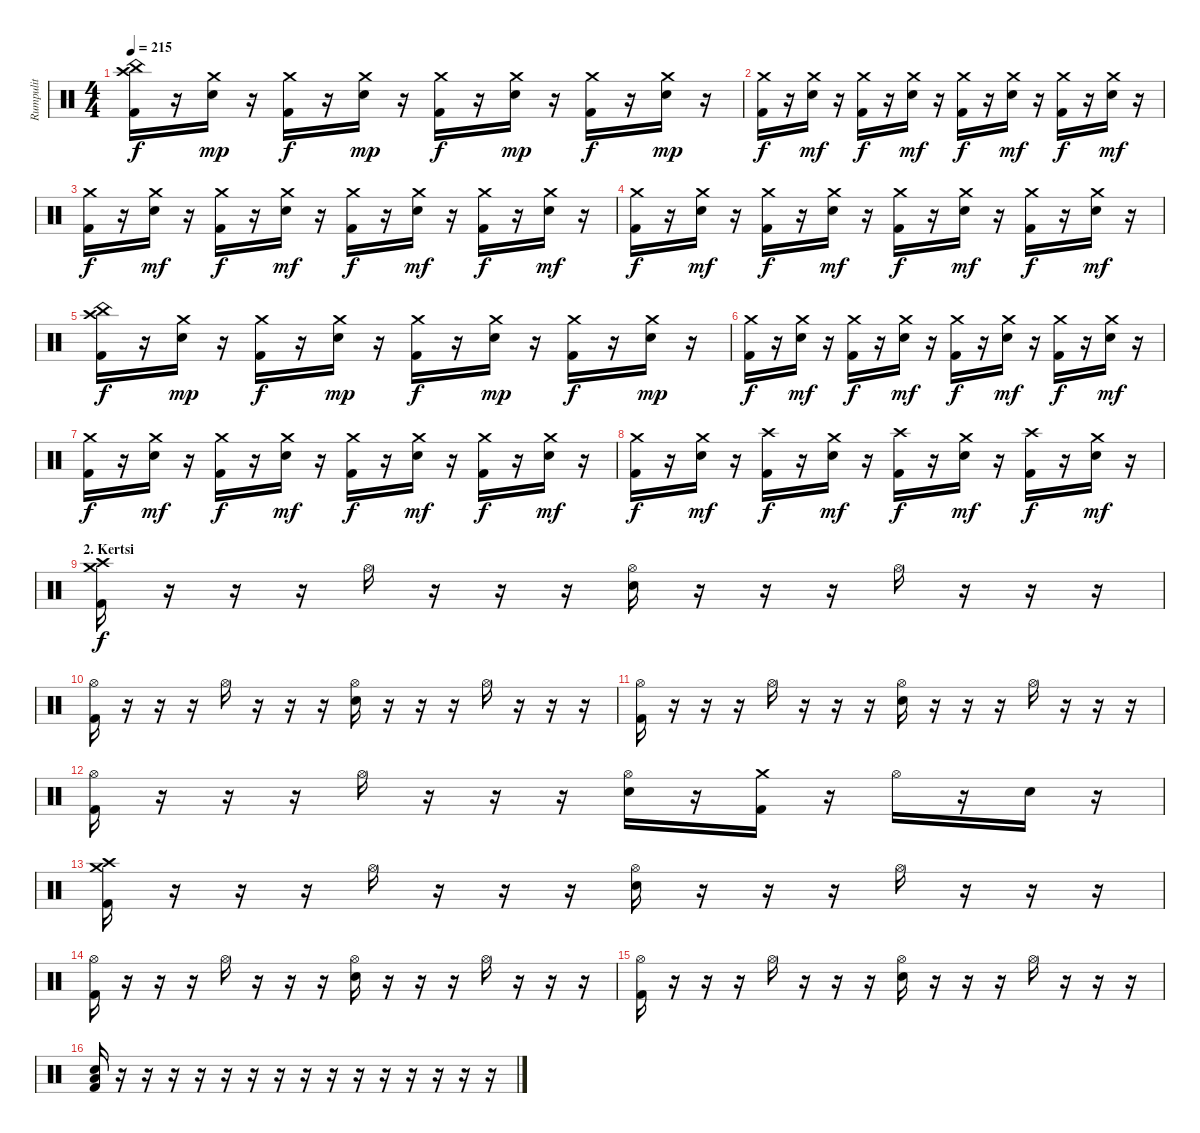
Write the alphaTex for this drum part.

\track ("Rumpulit" "Rumpulit") {instrument percussion}
\staff {score}
\articulation defaults
\ts (4 4)
\tempo 215
\clef neutral
\ks c
("Crash high (hit)" "Kick (hit) 2" "China (hit)").16{dy f} r.16 ("Crash medium (hit)" "Electric Snare (hit)").16{dy mp} r.16 ("Crash medium (hit)" "Kick (hit) 2").16{dy f} r.16 ("Crash medium (hit)" "Electric Snare (hit)").16{dy mp} r.16 ("Crash medium (hit)" "Kick (hit) 2").16{dy f} r.16 ("Crash medium (hit)" "Electric Snare (hit)").16{dy mp} r.16 ("Crash medium (hit)" "Kick (hit) 2").16{dy f} r.16 ("Crash medium (hit)" "Electric Snare (hit)").16{dy mp} r.16 |
("Crash medium (hit)" "Kick (hit) 2").16{dy f} r.16 ("Crash medium (hit)" "Electric Snare (hit)").16{dy mf} r.16 ("Crash medium (hit)" "Kick (hit) 2").16{dy f} r.16 ("Crash medium (hit)" "Electric Snare (hit)").16{dy mf} r.16 ("Crash medium (hit)" "Kick (hit) 2").16{dy f} r.16 ("Crash medium (hit)" "Electric Snare (hit)").16{dy mf} r.16 ("Crash medium (hit)" "Kick (hit) 2").16{dy f} r.16 ("Crash medium (hit)" "Electric Snare (hit)").16{dy mf} r.16 |
("Crash medium (hit)" "Kick (hit) 2").16{dy f} r.16 ("Crash medium (hit)" "Electric Snare (hit)").16{dy mf} r.16 ("Crash medium (hit)" "Kick (hit) 2").16{dy f} r.16 ("Crash medium (hit)" "Electric Snare (hit)").16{dy mf} r.16 ("Crash medium (hit)" "Kick (hit) 2").16{dy f} r.16 ("Crash medium (hit)" "Electric Snare (hit)").16{dy mf} r.16 ("Crash medium (hit)" "Kick (hit) 2").16{dy f} r.16 ("Crash medium (hit)" "Electric Snare (hit)").16{dy mf} r.16 |
("Crash medium (hit)" "Kick (hit) 2").16{dy f} r.16 ("Crash medium (hit)" "Electric Snare (hit)").16{dy mf} r.16 ("Crash medium (hit)" "Kick (hit) 2").16{dy f} r.16 ("Crash medium (hit)" "Electric Snare (hit)").16{dy mf} r.16 ("Crash medium (hit)" "Kick (hit) 2").16{dy f} r.16 ("Crash medium (hit)" "Electric Snare (hit)").16{dy mf} r.16 ("Crash medium (hit)" "Kick (hit) 2").16{dy f} r.16 ("Crash medium (hit)" "Electric Snare (hit)").16{dy mf} r.16 |
("Crash high (hit)" "Kick (hit) 2" "China (hit)").16{dy f} r.16 ("Crash medium (hit)" "Electric Snare (hit)").16{dy mp} r.16 ("Crash medium (hit)" "Kick (hit) 2").16{dy f} r.16 ("Crash medium (hit)" "Electric Snare (hit)").16{dy mp} r.16 ("Crash medium (hit)" "Kick (hit) 2").16{dy f} r.16 ("Crash medium (hit)" "Electric Snare (hit)").16{dy mp} r.16 ("Crash medium (hit)" "Kick (hit) 2").16{dy f} r.16 ("Crash medium (hit)" "Electric Snare (hit)").16{dy mp} r.16 |
("Crash medium (hit)" "Kick (hit) 2").16{dy f} r.16 ("Crash medium (hit)" "Electric Snare (hit)").16{dy mf} r.16 ("Crash medium (hit)" "Kick (hit) 2").16{dy f} r.16 ("Crash medium (hit)" "Electric Snare (hit)").16{dy mf} r.16 ("Crash medium (hit)" "Kick (hit) 2").16{dy f} r.16 ("Crash medium (hit)" "Electric Snare (hit)").16{dy mf} r.16 ("Crash medium (hit)" "Kick (hit) 2").16{dy f} r.16 ("Crash medium (hit)" "Electric Snare (hit)").16{dy mf} r.16 |
("Crash medium (hit)" "Kick (hit) 2").16{dy f} r.16 ("Crash medium (hit)" "Electric Snare (hit)").16{dy mf} r.16 ("Crash medium (hit)" "Kick (hit) 2").16{dy f} r.16 ("Crash medium (hit)" "Electric Snare (hit)").16{dy mf} r.16 ("Crash medium (hit)" "Kick (hit) 2").16{dy f} r.16 ("Crash medium (hit)" "Electric Snare (hit)").16{dy mf} r.16 ("Crash medium (hit)" "Kick (hit) 2").16{dy f} r.16 ("Crash medium (hit)" "Electric Snare (hit)").16{dy mf} r.16 |
("Crash medium (hit)" "Kick (hit) 2").16{dy f} r.16 ("Crash medium (hit)" "Electric Snare (hit)").16{dy mf} r.16 ("Crash high (hit)" "Kick (hit) 2").16{dy f} r.16 ("Crash medium (hit)" "Electric Snare (hit)").16{dy mf} r.16 ("Crash high (hit)" "Kick (hit) 2").16{dy f} r.16 ("Crash medium (hit)" "Electric Snare (hit)").16{dy mf} r.16 ("Crash high (hit)" "Kick (hit) 2").16{dy f} r.16 ("Crash medium (hit)" "Electric Snare (hit)").16{dy mf} r.16 |
\section ("" "2. Kertsi")
("Crash medium (hit)" "Kick (hit) 2" "Crash high (hit)").16{dy f} r.16 r.16 r.16 "Hi-Hat (open)".16 r.16 r.16 r.16 ("Hi-Hat (open)" "Electric Snare (hit)").16 r.16 r.16 r.16 "Hi-Hat (open)".16 r.16 r.16 r.16 |
("Hi-Hat (open)" "Kick (hit) 2").16 r.16 r.16 r.16 "Hi-Hat (open)".16 r.16 r.16 r.16 ("Hi-Hat (open)" "Electric Snare (hit)").16 r.16 r.16 r.16 "Hi-Hat (open)".16 r.16 r.16 r.16 |
("Hi-Hat (open)" "Kick (hit) 2").16 r.16 r.16 r.16 "Hi-Hat (open)".16 r.16 r.16 r.16 ("Hi-Hat (open)" "Electric Snare (hit)").16 r.16 r.16 r.16 "Hi-Hat (open)".16 r.16 r.16 r.16 |
("Hi-Hat (open)" "Kick (hit) 2").16 r.16 r.16 r.16 "Hi-Hat (open)".16 r.16 r.16 r.16 ("Hi-Hat (open)" "Electric Snare (hit)").16 r.16 ("Crash medium (hit)" "Kick (hit) 2").16 r.16 "Hi-Hat (open)".16 r.16 "Electric Snare (hit)".16 r.16 |
("Crash medium (hit)" "Kick (hit) 2" "Crash high (hit)").16 r.16 r.16 r.16 "Hi-Hat (open)".16 r.16 r.16 r.16 ("Hi-Hat (open)" "Electric Snare (hit)").16 r.16 r.16 r.16 "Hi-Hat (open)".16 r.16 r.16 r.16 |
("Hi-Hat (open)" "Kick (hit) 2").16 r.16 r.16 r.16 "Hi-Hat (open)".16 r.16 r.16 r.16 ("Hi-Hat (open)" "Electric Snare (hit)").16 r.16 r.16 r.16 "Hi-Hat (open)".16 r.16 r.16 r.16 |
("Hi-Hat (open)" "Kick (hit) 2").16 r.16 r.16 r.16 "Hi-Hat (open)".16 r.16 r.16 r.16 ("Hi-Hat (open)" "Electric Snare (hit)").16 r.16 r.16 r.16 "Hi-Hat (open)".16 r.16 r.16 r.16 |
("Electric Snare (hit)" "Low Floor Tom (hit)" "Kick (hit) 2").16 r.16 r.16 r.16 r.16 r.16 r.16 r.16 r.16 r.16 r.16 r.16 r.16 r.16 r.16 r.16
